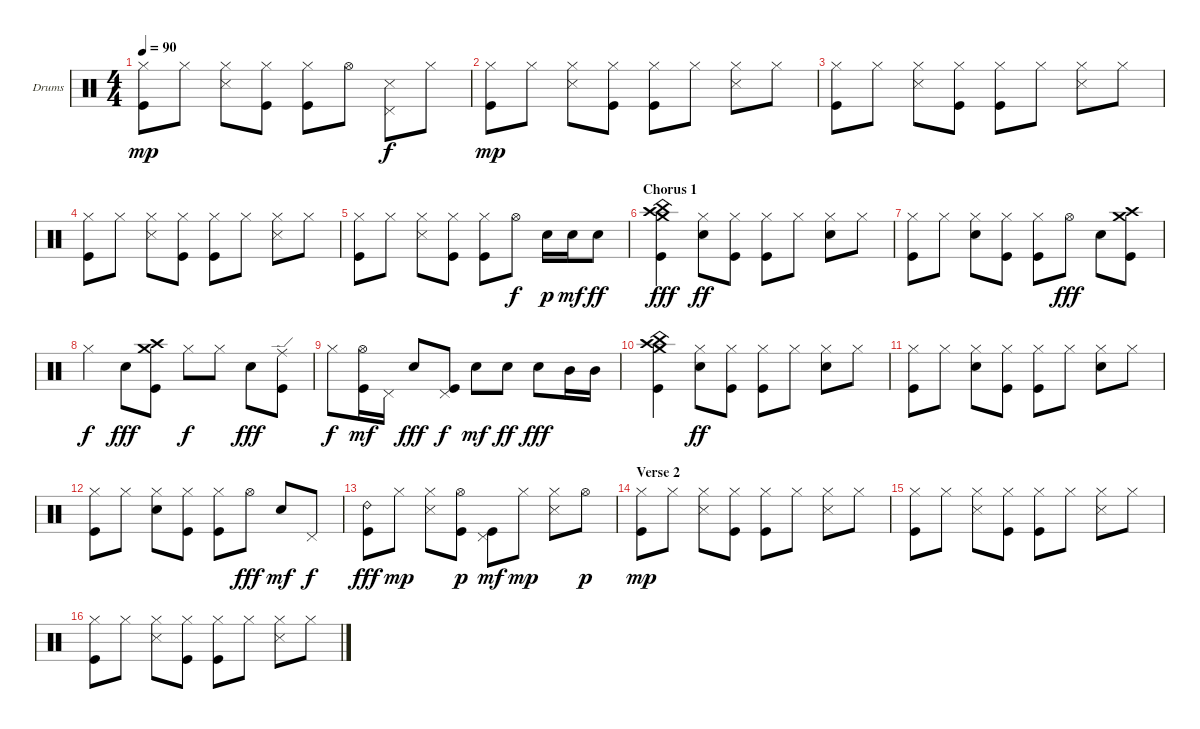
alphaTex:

\bracketExtendMode groupsimilarinstruments
\firstSystemTrackNameOrientation horizontal
\otherSystemsTrackNameOrientation horizontal
\track ("Drumkit" "Drums") {instrument percussion}
\staff {score}
\articulation defaults
\ts (4 4)
\tempo 90
\clef neutral
\ks c
("Hi-Hat (closed)" "Kick (hit)").8{dy mp} "Hi-Hat (closed)".8 ("Hi-Hat (closed)" "Snare (side stick) 3").8 ("Hi-Hat (closed)" "Kick (hit)").8 ("Hi-Hat (closed)" "Kick (hit)").8 "Hi-Hat (open)".8 ("Pedal Hi-Hat (hit)" "Snare (side stick) 3").8{dy f} "Hi-Hat (closed)".8 |
("Hi-Hat (closed)" "Kick (hit)").8{dy mp} "Hi-Hat (closed)".8 ("Hi-Hat (closed)" "Snare (side stick) 3").8 ("Hi-Hat (closed)" "Kick (hit)").8 ("Hi-Hat (closed)" "Kick (hit)").8 "Hi-Hat (closed)".8 ("Hi-Hat (closed)" "Snare (side stick) 3").8 "Hi-Hat (closed)".8 |
("Hi-Hat (closed)" "Kick (hit)").8 "Hi-Hat (closed)".8 ("Hi-Hat (closed)" "Snare (side stick) 3").8 ("Hi-Hat (closed)" "Kick (hit)").8 ("Hi-Hat (closed)" "Kick (hit)").8 "Hi-Hat (closed)".8 ("Hi-Hat (closed)" "Snare (side stick) 3").8 "Hi-Hat (closed)".8 |
("Hi-Hat (closed)" "Kick (hit)").8 "Hi-Hat (closed)".8 ("Hi-Hat (closed)" "Snare (side stick) 3").8 ("Hi-Hat (closed)" "Kick (hit)").8 ("Hi-Hat (closed)" "Kick (hit)").8 "Hi-Hat (closed)".8 ("Hi-Hat (closed)" "Snare (side stick) 3").8 "Hi-Hat (closed)".8 |
("Hi-Hat (closed)" "Kick (hit)").8 "Hi-Hat (closed)".8 ("Hi-Hat (closed)" "Snare (side stick) 3").8 ("Hi-Hat (closed)" "Kick (hit)").8 ("Hi-Hat (closed)" "Kick (hit)").8 "Hi-Hat (open)".8{dy f} "Snare (hit) 2".16{dy p} "Snare (hit) 2".16{dy mf} "Snare (hit) 2".8{dy ff} |
\section ("" "Chorus 1")
("Crash high (hit)" "Crash medium (hit)" "China (hit)" "Kick (hit)").4{dy fff} ("Hi-Hat (closed)" "Snare (hit) 2").8{dy ff} ("Hi-Hat (closed)" "Kick (hit)").8 ("Hi-Hat (closed)" "Kick (hit)").8 "Hi-Hat (closed)".8 ("Hi-Hat (closed)" "Snare (hit) 2").8 "Hi-Hat (closed)".8 |
("Hi-Hat (closed)" "Kick (hit)").8 "Hi-Hat (closed)".8 ("Hi-Hat (closed)" "Snare (hit) 2").8 ("Hi-Hat (closed)" "Kick (hit)").8 ("Hi-Hat (closed)" "Kick (hit)").8 "Hi-Hat (open)".8{dy fff} "Snare (hit) 2".8 ("Crash high (hit)" "Crash medium (hit)" "Kick (hit)").8 |
"Hi-Hat (closed)".4{dy f} "Snare (hit) 2".8{dy fff} ("Crash high (hit)" "Crash medium (hit)" "Kick (hit)").8 "Hi-Hat (closed)".8{dy f} "Hi-Hat (closed)".8 "Snare (hit) 2".8{dy fff} ("Ride (edge)" "Kick (hit)").8 |
"Hi-Hat (closed)".8{dy f} ("Hi-Hat (open)" "Kick (hit)").16{dy mf} "Pedal Hi-Hat (hit)".16 "Snare (hit) 2".8{dy fff} ("Pedal Hi-Hat (hit)" "Kick (hit)").8{dy f} "Snare (hit) 2".8{dy mf} "Snare (hit) 2".8{dy ff} "Snare (hit) 2".8{dy fff} "Mid Tom (hit)".16 "Mid Tom (hit)".16 |
("Crash high (hit)" "Crash medium (hit)" "China (hit)" "Kick (hit)").4 ("Hi-Hat (closed)" "Snare (hit) 2").8{dy ff} ("Hi-Hat (closed)" "Kick (hit)").8 ("Hi-Hat (closed)" "Kick (hit)").8 "Hi-Hat (closed)".8 ("Hi-Hat (closed)" "Snare (hit) 2").8 "Hi-Hat (closed)".8 |
("Hi-Hat (closed)" "Kick (hit)").8 "Hi-Hat (closed)".8 ("Hi-Hat (closed)" "Snare (hit) 2").8 ("Hi-Hat (closed)" "Kick (hit)").8 ("Hi-Hat (closed)" "Kick (hit)").8 "Hi-Hat (closed)".8 ("Hi-Hat (closed)" "Snare (hit) 2").8 "Hi-Hat (closed)".8 |
("Hi-Hat (closed)" "Kick (hit)").8 "Hi-Hat (closed)".8 ("Hi-Hat (closed)" "Snare (hit) 2").8 ("Hi-Hat (closed)" "Kick (hit)").8 ("Hi-Hat (closed)" "Kick (hit)").8 "Hi-Hat (open)".8{dy fff} "Snare (hit) 2".8{dy mf} "Pedal Hi-Hat (hit)".8{dy f} |
("Ride (bell) 2" "Kick (hit)").8{dy fff} "Hi-Hat (closed)".8{dy mp} ("Hi-Hat (closed)" "Snare (side stick) 3").8 ("Hi-Hat (open)" "Kick (hit)").8{dy p} ("Pedal Hi-Hat (hit)" "Kick (hit)").8{dy mf} "Hi-Hat (closed)".8{dy mp} ("Hi-Hat (closed)" "Snare (side stick) 3").8 "Hi-Hat (open)".8{dy p} |
\section ("" "Verse 2")
("Hi-Hat (closed)" "Kick (hit)").8{dy mp} "Hi-Hat (closed)".8 ("Hi-Hat (closed)" "Snare (side stick) 3").8 ("Hi-Hat (closed)" "Kick (hit)").8 ("Hi-Hat (closed)" "Kick (hit)").8 "Hi-Hat (closed)".8 ("Hi-Hat (closed)" "Snare (side stick) 3").8 "Hi-Hat (closed)".8 |
("Hi-Hat (closed)" "Kick (hit)").8 "Hi-Hat (closed)".8 ("Hi-Hat (closed)" "Snare (side stick) 3").8 ("Hi-Hat (closed)" "Kick (hit)").8 ("Hi-Hat (closed)" "Kick (hit)").8 "Hi-Hat (closed)".8 ("Hi-Hat (closed)" "Snare (side stick) 3").8 "Hi-Hat (closed)".8 |
("Hi-Hat (closed)" "Kick (hit)").8 "Hi-Hat (closed)".8 ("Hi-Hat (closed)" "Snare (side stick) 3").8 ("Hi-Hat (closed)" "Kick (hit)").8 ("Hi-Hat (closed)" "Kick (hit)").8 "Hi-Hat (closed)".8 ("Hi-Hat (closed)" "Snare (side stick) 3").8 "Hi-Hat (closed)".8
